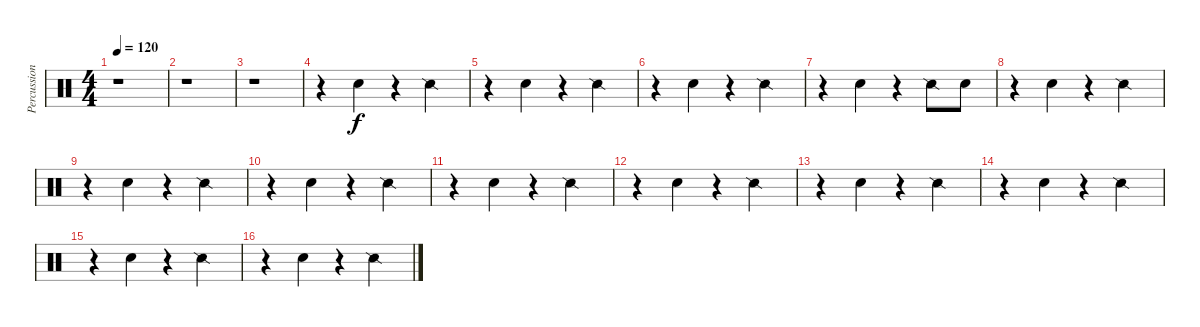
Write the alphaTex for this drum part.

\track ("Percussions" "Percussion") {instrument percussion}
\staff {score}
\articulation defaults
\ts (4 4)
\tempo 120
\clef neutral
\ks c
r.1{dy f} |
r.1 |
r.1 |
r.4 "Hand Clap (hit)".4 r.4 "Snare (side stick) 2".4 |
r.4 "Hand Clap (hit)".4 r.4 "Snare (side stick) 2".4 |
r.4 "Hand Clap (hit)".4 r.4 "Snare (side stick) 2".4 |
r.4 "Hand Clap (hit)".4 r.4 "Snare (side stick) 2".8 "Hand Clap (hit)".8 |
r.4 "Hand Clap (hit)".4 r.4 "Snare (side stick) 2".4 |
r.4 "Hand Clap (hit)".4 r.4 "Snare (side stick) 2".4 |
r.4 "Hand Clap (hit)".4 r.4 "Snare (side stick) 2".4 |
r.4 "Hand Clap (hit)".4 r.4 "Snare (side stick) 2".4 |
r.4 "Hand Clap (hit)".4 r.4 "Snare (side stick) 2".4 |
r.4 "Hand Clap (hit)".4 r.4 "Snare (side stick) 2".4 |
r.4 "Hand Clap (hit)".4 r.4 "Snare (side stick) 2".4 |
r.4 "Hand Clap (hit)".4 r.4 "Snare (side stick) 2".4 |
r.4 "Hand Clap (hit)".4 r.4 "Snare (side stick) 2".4
